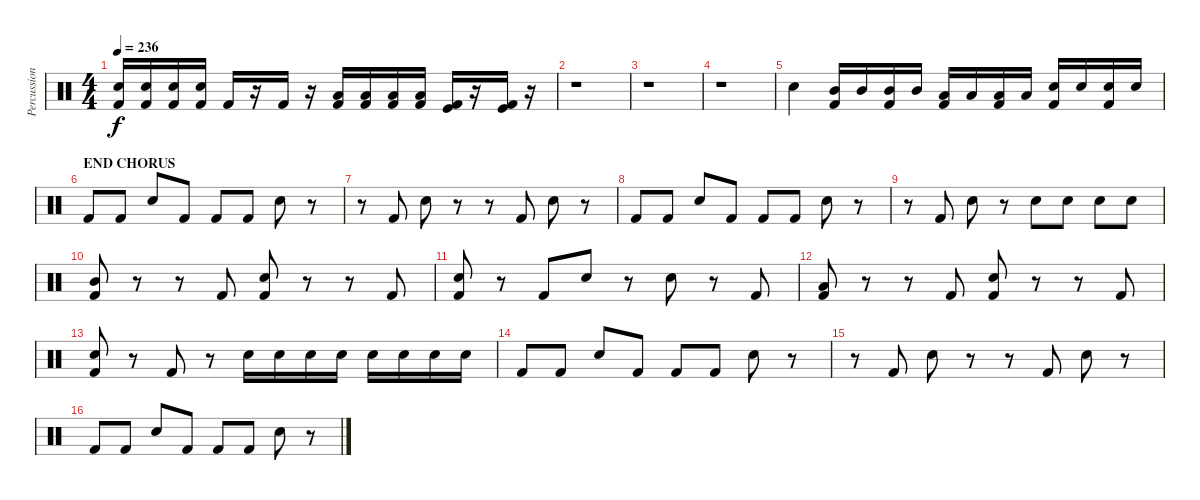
\track ("Percussions" "Percussion") {instrument percussion}
\staff {score}
\articulation defaults
\ts (4 4)
\tempo 236
\clef neutral
\ks c
("Snare (hit) 2" "Kick (hit) 2").16{dy f} ("Snare (hit) 2" "Kick (hit) 2").16 ("Snare (hit) 2" "Kick (hit) 2").16 ("Snare (hit) 2" "Kick (hit) 2").16 "Kick (hit) 2".16 r.16 "Kick (hit) 2".16 r.16 ("Low Tom (hit)" "Kick (hit) 2").16 ("Low Tom (hit)" "Kick (hit) 2").16 ("Low Tom (hit)" "Kick (hit) 2").16 ("Low Tom (hit)" "Kick (hit) 2").16 ("Kick (hit)" "Kick (hit) 2").16 r.16 ("Kick (hit)" "Kick (hit) 2").16 r.16 |
r.1 |
r.1 |
r.1 |
"Snare (hit) 2".4 ("Mid Tom (hit)" "Kick (hit) 2").16 "Mid Tom (hit)".16 ("Mid Tom (hit)" "Kick (hit) 2").16 "Mid Tom (hit)".16 ("Low Tom (hit)" "Kick (hit) 2").16 "Low Tom (hit)".16 ("Low Tom (hit)" "Kick (hit) 2").16 "Low Tom (hit)".16 ("Snare (hit) 2" "Kick (hit) 2").16 "Snare (hit) 2".16 ("Snare (hit) 2" "Kick (hit) 2").16 "Snare (hit) 2".16 |
\section ("" "END CHORUS")
"Kick (hit) 2".8 "Kick (hit) 2".8 "Snare (hit) 2".8 "Kick (hit) 2".8 "Kick (hit) 2".8 "Kick (hit) 2".8 "Snare (hit) 2".8 r.8 |
r.8 "Kick (hit) 2".8 "Snare (hit) 2".8 r.8 r.8 "Kick (hit) 2".8 "Snare (hit) 2".8 r.8 |
"Kick (hit) 2".8 "Kick (hit) 2".8 "Snare (hit) 2".8 "Kick (hit) 2".8 "Kick (hit) 2".8 "Kick (hit) 2".8 "Snare (hit) 2".8 r.8 |
r.8 "Kick (hit) 2".8 "Snare (hit) 2".8 r.8 "Snare (hit) 2".8 "Snare (hit) 2".8 "Snare (hit) 2".8 "Snare (hit) 2".8 |
("Mid Tom (hit)" "Kick (hit) 2").8 r.8 r.8 "Kick (hit) 2".8 ("Snare (hit) 2" "Kick (hit) 2").8 r.8 r.8 "Kick (hit) 2".8 |
("Snare (hit) 2" "Kick (hit) 2").8 r.8 "Kick (hit) 2".8 "Snare (hit) 2".8 r.8 "Snare (hit) 2".8 r.8 "Kick (hit) 2".8 |
("Low Tom (hit)" "Kick (hit) 2").8 r.8 r.8 "Kick (hit) 2".8 ("Snare (hit) 2" "Kick (hit) 2").8 r.8 r.8 "Kick (hit) 2".8 |
("Snare (hit) 2" "Kick (hit) 2").8 r.8 "Kick (hit) 2".8 r.8 "Snare (hit) 2".16 "Snare (hit) 2".16 "Snare (hit) 2".16 "Snare (hit) 2".16 "Snare (hit) 2".16 "Snare (hit) 2".16 "Snare (hit) 2".16 "Snare (hit) 2".16 |
"Kick (hit) 2".8 "Kick (hit) 2".8 "Snare (hit) 2".8 "Kick (hit) 2".8 "Kick (hit) 2".8 "Kick (hit) 2".8 "Snare (hit) 2".8 r.8 |
r.8 "Kick (hit) 2".8 "Snare (hit) 2".8 r.8 r.8 "Kick (hit) 2".8 "Snare (hit) 2".8 r.8 |
"Kick (hit) 2".8 "Kick (hit) 2".8 "Snare (hit) 2".8 "Kick (hit) 2".8 "Kick (hit) 2".8 "Kick (hit) 2".8 "Snare (hit) 2".8 r.8
